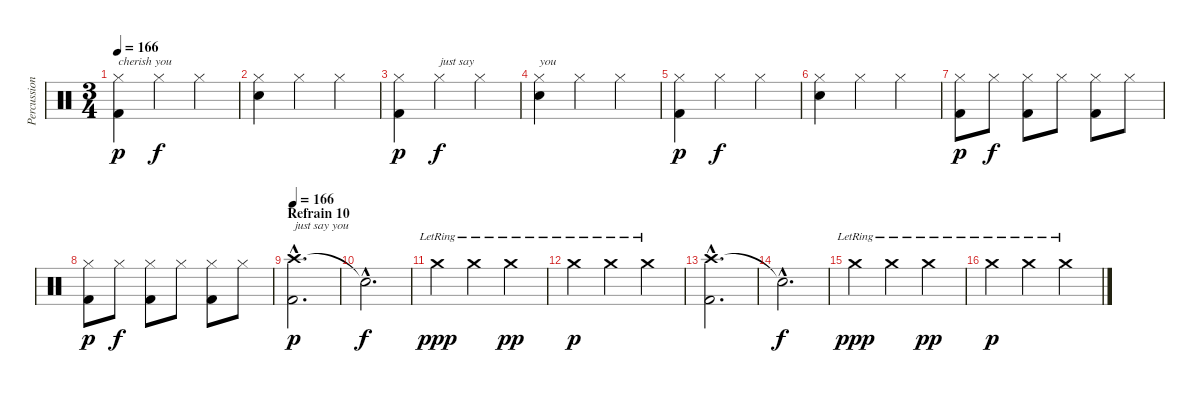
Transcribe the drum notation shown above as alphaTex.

\track ("Percussion" "Percussion") {instrument percussion}
\staff {score}
\articulation defaults
\ts (3 4)
\tempo 166
\clef neutral
\ks c
("Hi-Hat (closed)" "Kick (hit) 2").4{txt "cherish you" dy p} "Hi-Hat (closed)".4{dy f} "Hi-Hat (closed)".4 |
("Hi-Hat (closed)" "Electric Snare (hit)").4 "Hi-Hat (closed)".4 "Hi-Hat (closed)".4 |
("Hi-Hat (closed)" "Kick (hit) 2").4{dy p} "Hi-Hat (closed)".4{txt "just say" dy f} "Hi-Hat (closed)".4 |
("Hi-Hat (closed)" "Electric Snare (hit)").4{txt "you"} "Hi-Hat (closed)".4 "Hi-Hat (closed)".4 |
("Hi-Hat (closed)" "Kick (hit) 2").4{dy p} "Hi-Hat (closed)".4{dy f} "Hi-Hat (closed)".4 |
("Hi-Hat (closed)" "Electric Snare (hit)").4 "Hi-Hat (closed)".4 "Hi-Hat (closed)".4 |
("Hi-Hat (closed)" "Kick (hit) 2").8{dy p} "Hi-Hat (closed)".8{dy f} ("Hi-Hat (closed)" "Kick (hit) 2").8 "Hi-Hat (closed)".8 ("Hi-Hat (closed)" "Kick (hit) 2").8 "Hi-Hat (closed)".8 |
("Hi-Hat (closed)" "Kick (hit) 2").8{dy p} "Hi-Hat (closed)".8{dy f} ("Hi-Hat (closed)" "Kick (hit) 2").8 "Hi-Hat (closed)".8 ("Hi-Hat (closed)" "Kick (hit) 2").8 "Hi-Hat (closed)".8 |
\section ("" "Refrain 10")
\tempo 166
("Crash high (hit)"{hac} "Kick (hit) 2"{hac}).2{d txt "just say you" dy p} |
"Snare (hit)"{hac t}.2{d dy f} |
"Crash medium (hit)"{lr}.4{dy ppp} "Crash medium (hit)"{lr}.4 "Crash medium (hit)"{lr}.4{dy pp} |
"Crash medium (hit)"{lr}.4{dy p} "Crash medium (hit)"{lr}.4 "Crash medium (hit)"{lr}.4 |
("Crash high (hit)"{hac} "Kick (hit) 2"{hac}).2{d} |
"Snare (hit)"{hac t}.2{d dy f} |
"Crash medium (hit)"{lr}.4{dy ppp} "Crash medium (hit)"{lr}.4 "Crash medium (hit)"{lr}.4{dy pp} |
"Crash medium (hit)"{lr}.4{dy p} "Crash medium (hit)"{lr}.4 "Crash medium (hit)"{lr}.4
